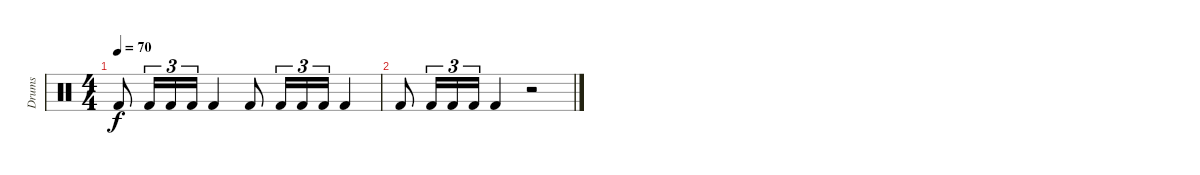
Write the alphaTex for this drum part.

\track ("Drums" "Drums") {instrument percussion}
\staff
\articulation defaults
\ts (4 4)
\tempo 70
\clef neutral
\ks c "Kick (hit) 2".8{dy f} "Kick (hit) 2".16{tu (3 2)} "Kick (hit) 2".16{tu (3 2)} "Kick (hit) 2".16{tu (3 2)} "Kick (hit) 2".4 "Kick (hit) 2".8 "Kick (hit) 2".16{tu (3 2)} "Kick (hit) 2".16{tu (3 2)} "Kick (hit) 2".16{tu (3 2)} "Kick (hit) 2".4
|
"Kick (hit) 2".8 "Kick (hit) 2".16{tu (3 2)} "Kick (hit) 2".16{tu (3 2)} "Kick (hit) 2".16{tu (3 2)} "Kick (hit) 2".4 r.2
